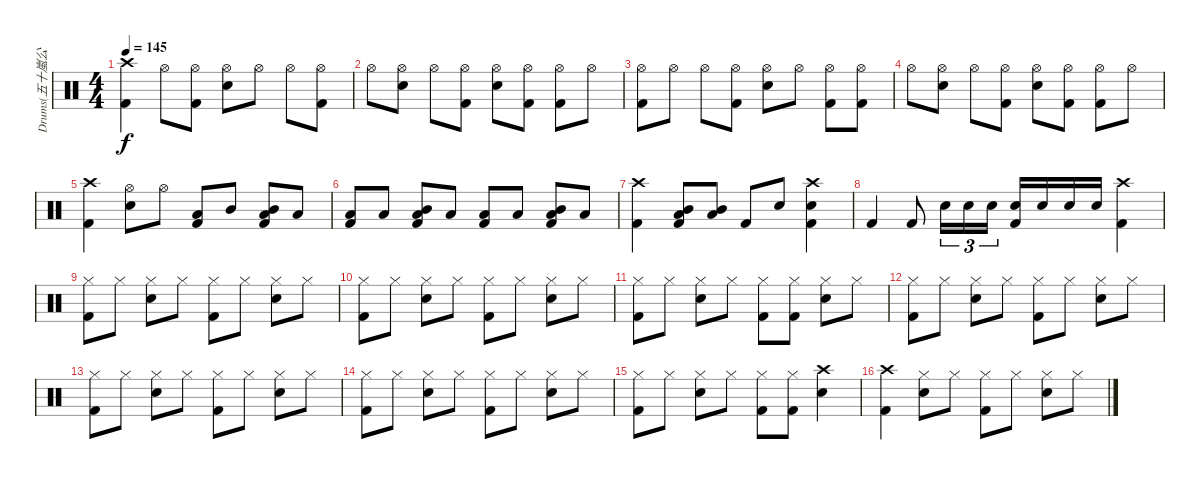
\track ("Drums(五十嵐公太)" "Drums(五十嵐公") {instrument percussion}
\staff {score}
\articulation defaults
\ts (4 4)
\tempo 145
\clef neutral
\ks c
("Crash high (hit)" "Kick (hit) 2").4{dy f} "Hi-Hat (open)".8 ("Hi-Hat (open)" "Kick (hit) 2").8 ("Hi-Hat (open)" "Snare (hit) 2").8 "Hi-Hat (open)".8 "Hi-Hat (open)".8 ("Hi-Hat (open)" "Kick (hit) 2").8 |
"Hi-Hat (open)".8 ("Hi-Hat (open)" "Snare (hit) 2").8 "Hi-Hat (open)".8 ("Hi-Hat (open)" "Kick (hit) 2").8 ("Hi-Hat (open)" "Snare (hit) 2").8 ("Hi-Hat (open)" "Kick (hit) 2").8 ("Hi-Hat (open)" "Kick (hit) 2").8 "Hi-Hat (open)".8 |
("Hi-Hat (open)" "Kick (hit) 2").8 "Hi-Hat (open)".8 "Hi-Hat (open)".8 ("Hi-Hat (open)" "Kick (hit) 2").8 ("Hi-Hat (open)" "Snare (hit) 2").8 "Hi-Hat (open)".8 ("Hi-Hat (open)" "Kick (hit) 2").8 ("Hi-Hat (open)" "Kick (hit) 2").8 |
"Hi-Hat (open)".8 ("Hi-Hat (open)" "Snare (hit) 2").8 "Hi-Hat (open)".8 ("Hi-Hat (open)" "Kick (hit) 2").8 ("Hi-Hat (open)" "Snare (hit) 2").8 ("Hi-Hat (open)" "Kick (hit) 2").8 ("Hi-Hat (open)" "Kick (hit) 2").8 "Hi-Hat (open)".8 |
("Crash high (hit)" "Kick (hit) 2").4 ("Hi-Hat (open)" "Snare (hit) 2").8 "Hi-Hat (open)".8 ("Low Tom (hit)" "Kick (hit) 2").8 "Mid Tom (hit)".8 ("Mid Tom (hit)" "Low Tom (hit)" "Kick (hit) 2").8 "Low Tom (hit)".8 |
("Low Tom (hit)" "Kick (hit) 2").8 "Low Tom (hit)".8 ("Mid Tom (hit)" "Low Tom (hit)" "Kick (hit) 2").8 "Low Tom (hit)".8 ("Low Tom (hit)" "Kick (hit) 2").8 "Low Tom (hit)".8 ("Mid Tom (hit)" "Low Tom (hit)" "Kick (hit) 2").8 "Low Tom (hit)".8 |
("Crash high (hit)" "Kick (hit) 2").4 ("Mid Tom (hit)" "Low Tom (hit)" "Kick (hit) 2").8 ("Mid Tom (hit)" "Low Tom (hit)").8 "Kick (hit) 2".8 "Snare (hit) 2".8 ("Crash high (hit)" "Snare (hit) 2" "Kick (hit) 2").4 |
"Kick (hit) 2".4 "Kick (hit) 2".8 "Snare (hit) 2".16{tu (3 2)} "Snare (hit) 2".16{tu (3 2)} "Snare (hit) 2".16{tu (3 2)} ("Snare (hit) 2" "Kick (hit) 2").16 "Snare (hit) 2".16 "Snare (hit) 2".16 "Snare (hit) 2".16 ("Crash high (hit)" "Kick (hit) 2").4 |
("Hi-Hat (closed)" "Kick (hit) 2").8 "Hi-Hat (closed)".8 ("Hi-Hat (closed)" "Snare (hit) 2").8 "Hi-Hat (closed)".8 ("Hi-Hat (closed)" "Kick (hit) 2").8 "Hi-Hat (closed)".8 ("Hi-Hat (closed)" "Snare (hit) 2").8 "Hi-Hat (closed)".8 |
("Hi-Hat (closed)" "Kick (hit) 2").8 "Hi-Hat (closed)".8 ("Hi-Hat (closed)" "Snare (hit) 2").8 "Hi-Hat (closed)".8 ("Hi-Hat (closed)" "Kick (hit) 2").8 "Hi-Hat (closed)".8 ("Hi-Hat (closed)" "Snare (hit) 2").8 "Hi-Hat (closed)".8 |
("Hi-Hat (closed)" "Kick (hit) 2").8 "Hi-Hat (closed)".8 ("Hi-Hat (closed)" "Snare (hit) 2").8 "Hi-Hat (closed)".8 ("Hi-Hat (closed)" "Kick (hit) 2").8 ("Hi-Hat (closed)" "Kick (hit) 2").8 ("Hi-Hat (closed)" "Snare (hit) 2").8 "Hi-Hat (closed)".8 |
("Hi-Hat (closed)" "Kick (hit) 2").8 "Hi-Hat (closed)".8 ("Hi-Hat (closed)" "Snare (hit) 2").8 "Hi-Hat (closed)".8 ("Hi-Hat (closed)" "Kick (hit) 2").8 "Hi-Hat (closed)".8 ("Hi-Hat (closed)" "Snare (hit) 2").8 "Hi-Hat (closed)".8 |
("Hi-Hat (closed)" "Kick (hit) 2").8 "Hi-Hat (closed)".8 ("Hi-Hat (closed)" "Snare (hit) 2").8 "Hi-Hat (closed)".8 ("Hi-Hat (closed)" "Kick (hit) 2").8 "Hi-Hat (closed)".8 ("Hi-Hat (closed)" "Snare (hit) 2").8 "Hi-Hat (closed)".8 |
("Hi-Hat (closed)" "Kick (hit) 2").8 "Hi-Hat (closed)".8 ("Hi-Hat (closed)" "Snare (hit) 2").8 "Hi-Hat (closed)".8 ("Hi-Hat (closed)" "Kick (hit) 2").8 "Hi-Hat (closed)".8 ("Hi-Hat (closed)" "Snare (hit) 2").8 "Hi-Hat (closed)".8 |
("Hi-Hat (closed)" "Kick (hit) 2").8 "Hi-Hat (closed)".8 ("Hi-Hat (closed)" "Snare (hit) 2").8 "Hi-Hat (closed)".8 ("Hi-Hat (closed)" "Kick (hit) 2").8 ("Hi-Hat (closed)" "Kick (hit) 2").8 ("Crash high (hit)" "Snare (hit) 2").4 |
("Crash high (hit)" "Kick (hit) 2").4 ("Hi-Hat (closed)" "Snare (hit) 2").8 "Hi-Hat (closed)".8 ("Hi-Hat (closed)" "Kick (hit) 2").8 "Hi-Hat (closed)".8 ("Hi-Hat (closed)" "Snare (hit) 2").8 "Hi-Hat (closed)".8
